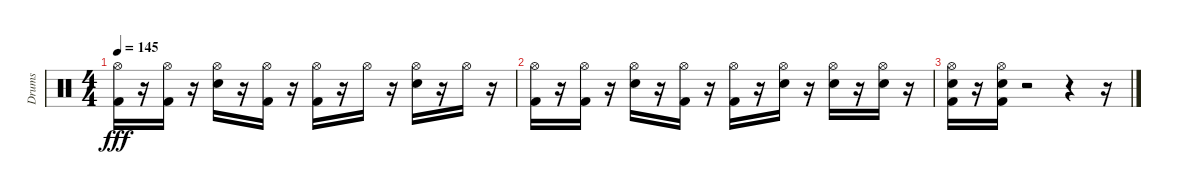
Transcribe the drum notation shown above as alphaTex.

\track ("Drums" "Drums") {instrument percussion}
\staff {score}
\articulation defaults
\ts (4 4)
\tempo 145
\clef neutral
\ks c
("Hi-Hat (open)" "Kick (hit) 2").16{dy fff} r.16 ("Kick (hit) 2" "Hi-Hat (open)").16 r.16 ("Hi-Hat (open)" "Electric Snare (hit)").16 r.16 ("Kick (hit) 2" "Hi-Hat (open)").16 r.16 ("Hi-Hat (open)" "Kick (hit) 2").16 r.16 "Hi-Hat (open)".16 r.16 ("Hi-Hat (open)" "Electric Snare (hit)").16 r.16 "Hi-Hat (open)".16 r.16 |
("Hi-Hat (open)" "Kick (hit) 2").16 r.16 ("Kick (hit) 2" "Hi-Hat (open)").16 r.16 ("Hi-Hat (open)" "Electric Snare (hit)").16 r.16 ("Kick (hit) 2" "Hi-Hat (open)").16 r.16 ("Hi-Hat (open)" "Kick (hit) 2").16 r.16 ("Electric Snare (hit)" "Hi-Hat (open)").16 r.16 ("Hi-Hat (open)" "Electric Snare (hit)").16 r.16 ("Electric Snare (hit)" "Hi-Hat (open)").16 r.16 |
("Electric Snare (hit)" "Hi-Hat (open)" "Kick (hit) 2").16 r.16 ("Electric Snare (hit)" "Kick (hit) 2" "Hi-Hat (open)").16 r.2 r.4 r.16
